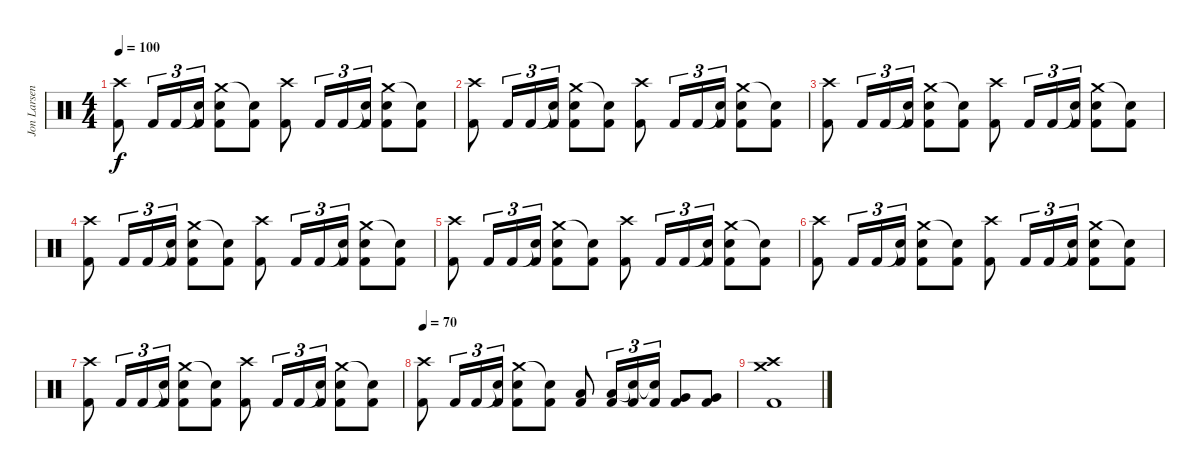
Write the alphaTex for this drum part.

\track ("Jon Larsen" "Jon Larsen") {instrument percussion}
\staff {score}
\articulation defaults
\ts (4 4)
\tempo 100
\clef neutral
\ks c
("Crash high (hit)" "Kick (hit) 2").8{dy f} "Kick (hit) 2".16{tu (3 2)} "Kick (hit) 2".16{tu (3 2)} ("Snare (hit)"{t} "Kick (hit) 2").16{tu (3 2)} ("Crash medium (hit)" "Snare (hit) 2" "Kick (hit) 2").8 ("Snare (hit)"{t} "Kick (hit) 2").8 ("Crash high (hit)" "Kick (hit) 2").8 "Kick (hit) 2".16{tu (3 2)} "Kick (hit) 2".16{tu (3 2)} ("Snare (hit)"{t} "Kick (hit) 2").16{tu (3 2)} ("Crash medium (hit)" "Snare (hit) 2" "Kick (hit) 2").8 ("Snare (hit)"{t} "Kick (hit) 2").8 |
("Crash high (hit)" "Kick (hit) 2").8 "Kick (hit) 2".16{tu (3 2)} "Kick (hit) 2".16{tu (3 2)} ("Snare (hit)"{t} "Kick (hit) 2").16{tu (3 2)} ("Crash medium (hit)" "Snare (hit) 2" "Kick (hit) 2").8 ("Snare (hit)"{t} "Kick (hit) 2").8 ("Crash high (hit)" "Kick (hit) 2").8 "Kick (hit) 2".16{tu (3 2)} "Kick (hit) 2".16{tu (3 2)} ("Snare (hit)"{t} "Kick (hit) 2").16{tu (3 2)} ("Crash medium (hit)" "Snare (hit) 2" "Kick (hit) 2").8 ("Snare (hit)"{t} "Kick (hit) 2").8 |
("Crash high (hit)" "Kick (hit) 2").8 "Kick (hit) 2".16{tu (3 2)} "Kick (hit) 2".16{tu (3 2)} ("Snare (hit)"{t} "Kick (hit) 2").16{tu (3 2)} ("Crash medium (hit)" "Snare (hit) 2" "Kick (hit) 2").8 ("Snare (hit)"{t} "Kick (hit) 2").8 ("Crash high (hit)" "Kick (hit) 2").8 "Kick (hit) 2".16{tu (3 2)} "Kick (hit) 2".16{tu (3 2)} ("Snare (hit)"{t} "Kick (hit) 2").16{tu (3 2)} ("Crash medium (hit)" "Snare (hit) 2" "Kick (hit) 2").8 ("Snare (hit)"{t} "Kick (hit) 2").8 |
("Crash high (hit)" "Kick (hit) 2").8 "Kick (hit) 2".16{tu (3 2)} "Kick (hit) 2".16{tu (3 2)} ("Snare (hit)"{t} "Kick (hit) 2").16{tu (3 2)} ("Crash medium (hit)" "Snare (hit) 2" "Kick (hit) 2").8 ("Snare (hit)"{t} "Kick (hit) 2").8 ("Crash high (hit)" "Kick (hit) 2").8 "Kick (hit) 2".16{tu (3 2)} "Kick (hit) 2".16{tu (3 2)} ("Snare (hit)"{t} "Kick (hit) 2").16{tu (3 2)} ("Crash medium (hit)" "Snare (hit) 2" "Kick (hit) 2").8 ("Snare (hit)"{t} "Kick (hit) 2").8 |
("Crash high (hit)" "Kick (hit) 2").8 "Kick (hit) 2".16{tu (3 2)} "Kick (hit) 2".16{tu (3 2)} ("Snare (hit)"{t} "Kick (hit) 2").16{tu (3 2)} ("Crash medium (hit)" "Snare (hit) 2" "Kick (hit) 2").8 ("Snare (hit)"{t} "Kick (hit) 2").8 ("Crash high (hit)" "Kick (hit) 2").8 "Kick (hit) 2".16{tu (3 2)} "Kick (hit) 2".16{tu (3 2)} ("Snare (hit)"{t} "Kick (hit) 2").16{tu (3 2)} ("Crash medium (hit)" "Snare (hit) 2" "Kick (hit) 2").8 ("Snare (hit)"{t} "Kick (hit) 2").8 |
("Crash high (hit)" "Kick (hit) 2").8 "Kick (hit) 2".16{tu (3 2)} "Kick (hit) 2".16{tu (3 2)} ("Snare (hit)"{t} "Kick (hit) 2").16{tu (3 2)} ("Crash medium (hit)" "Snare (hit) 2" "Kick (hit) 2").8 ("Snare (hit)"{t} "Kick (hit) 2").8 ("Crash high (hit)" "Kick (hit) 2").8 "Kick (hit) 2".16{tu (3 2)} "Kick (hit) 2".16{tu (3 2)} ("Snare (hit)"{t} "Kick (hit) 2").16{tu (3 2)} ("Crash medium (hit)" "Snare (hit) 2" "Kick (hit) 2").8 ("Snare (hit)"{t} "Kick (hit) 2").8 |
("Crash high (hit)" "Kick (hit) 2").8 "Kick (hit) 2".16{tu (3 2)} "Kick (hit) 2".16{tu (3 2)} ("Snare (hit)"{t} "Kick (hit) 2").16{tu (3 2)} ("Crash medium (hit)" "Snare (hit) 2" "Kick (hit) 2").8 ("Snare (hit)"{t} "Kick (hit) 2").8 ("Crash high (hit)" "Kick (hit) 2").8 "Kick (hit) 2".16{tu (3 2)} "Kick (hit) 2".16{tu (3 2)} ("Snare (hit)"{t} "Kick (hit) 2").16{tu (3 2)} ("Crash medium (hit)" "Snare (hit) 2" "Kick (hit) 2").8 ("Snare (hit)"{t} "Kick (hit) 2").8 |
\tempo 70
("Crash high (hit)" "Kick (hit) 2").8 "Kick (hit) 2".16{tu (3 2)} "Kick (hit) 2".16{tu (3 2)} ("Snare (hit)"{t} "Kick (hit) 2").16{tu (3 2)} ("Crash medium (hit)" "Snare (hit) 2" "Kick (hit) 2").8 ("Snare (hit)"{t} "Kick (hit) 2").8 ("Low Tom (hit)" "Kick (hit) 2").8 ("Low Tom (hit)" "Kick (hit) 2").16{tu (3 2)} ("Snare (hit)"{t} "Kick (hit) 2").16{tu (3 2)} ("Snare (hit)"{t} "Kick (hit) 2").16{tu (3 2)} ("Very Low Tom (hit)" "Kick (hit) 2").8 ("Very Low Tom (hit)" "Kick (hit) 2").8 |
("Crash high (hit)" "Crash medium (hit)" "Kick (hit) 2").1
